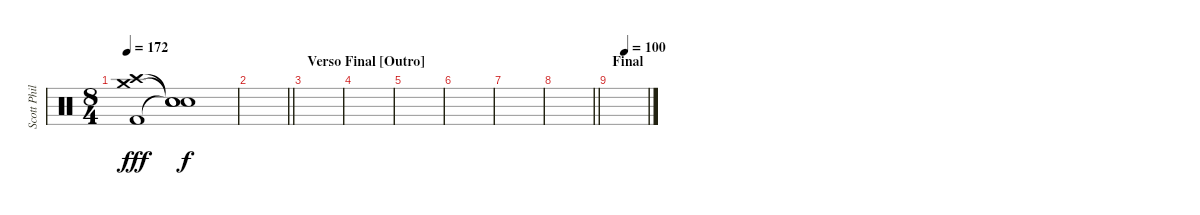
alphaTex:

\track ("Scott Phillips [Drums]" "Scott Phil") {instrument percussion}
\staff {score}
\articulation defaults
\ts (8 4)
\tempo 172
\clef neutral
\ks c
("Crash high (hit)" "Crash medium (hit)" "Kick (hit) 2").1{dy fff} ("Snare (hit)"{t} "Snare (hit)"{t} "Snare (hit)"{t}).1{dy f} |
\barLineRight lightlight
|
\section ("" "Verso Final [Outro]")
|
|
|
|
|
\barLineRight lightlight
|
\section ("" "Final")
\tempo (100 0.375)
